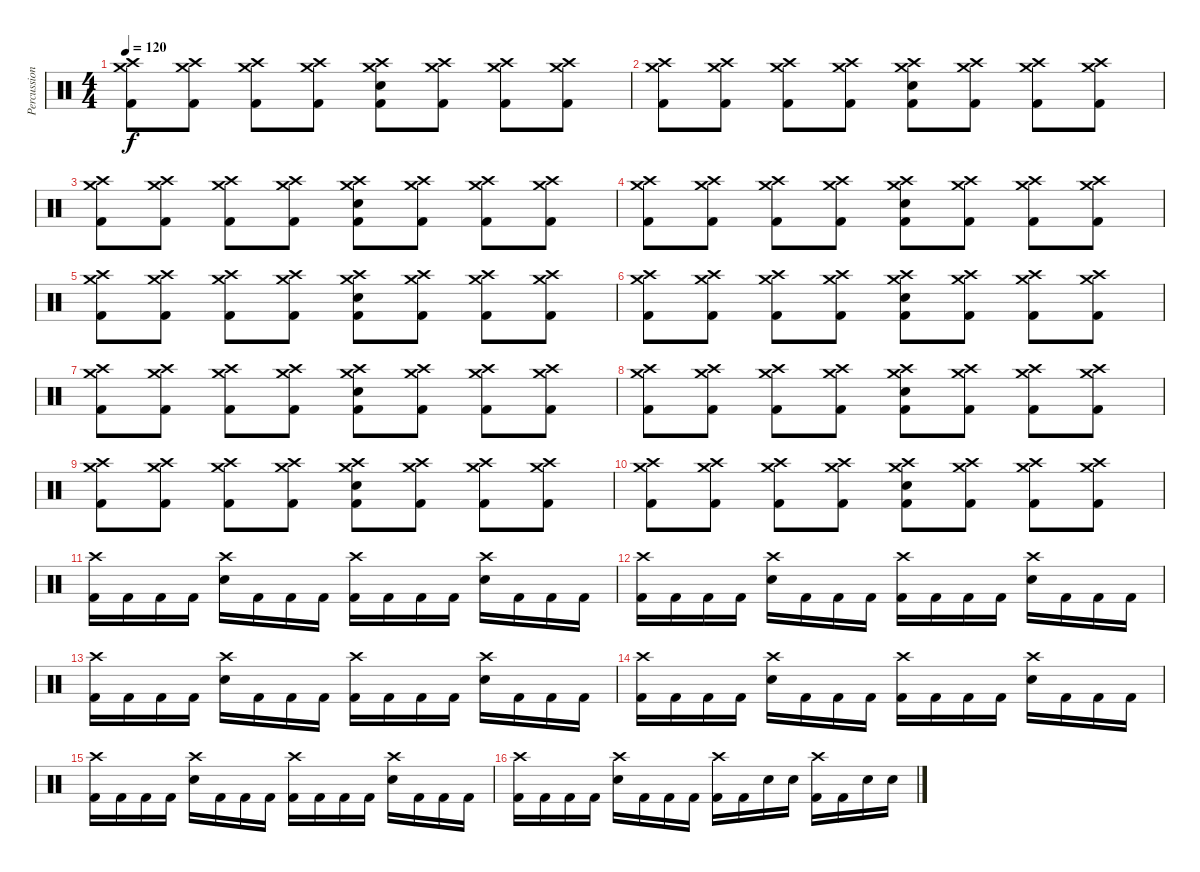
\track ("Percussion" "Percussion") {instrument percussion}
\staff {score}
\articulation defaults
\ts (4 4)
\tempo 120
\clef neutral
\ks c
("Crash high (hit)" "Crash medium (hit)" "Kick (hit) 2").8{dy f} ("Crash high (hit)" "Crash medium (hit)" "Kick (hit) 2").8 ("Crash high (hit)" "Crash medium (hit)" "Kick (hit) 2").8 ("Crash high (hit)" "Crash medium (hit)" "Kick (hit) 2").8 ("Crash high (hit)" "Crash medium (hit)" "Electric Snare (hit)" "Kick (hit) 2").8 ("Crash high (hit)" "Crash medium (hit)" "Kick (hit) 2").8 ("Crash high (hit)" "Crash medium (hit)" "Kick (hit) 2").8 ("Crash high (hit)" "Crash medium (hit)" "Kick (hit) 2").8 |
("Crash high (hit)" "Crash medium (hit)" "Kick (hit) 2").8 ("Crash high (hit)" "Crash medium (hit)" "Kick (hit) 2").8 ("Crash high (hit)" "Crash medium (hit)" "Kick (hit) 2").8 ("Crash high (hit)" "Crash medium (hit)" "Kick (hit) 2").8 ("Crash high (hit)" "Crash medium (hit)" "Electric Snare (hit)" "Kick (hit) 2").8 ("Crash high (hit)" "Crash medium (hit)" "Kick (hit) 2").8 ("Crash high (hit)" "Crash medium (hit)" "Kick (hit) 2").8 ("Crash high (hit)" "Crash medium (hit)" "Kick (hit) 2").8 |
("Crash high (hit)" "Crash medium (hit)" "Kick (hit) 2").8 ("Crash high (hit)" "Crash medium (hit)" "Kick (hit) 2").8 ("Crash high (hit)" "Crash medium (hit)" "Kick (hit) 2").8 ("Crash high (hit)" "Crash medium (hit)" "Kick (hit) 2").8 ("Crash high (hit)" "Crash medium (hit)" "Electric Snare (hit)" "Kick (hit) 2").8 ("Crash high (hit)" "Crash medium (hit)" "Kick (hit) 2").8 ("Crash high (hit)" "Crash medium (hit)" "Kick (hit) 2").8 ("Crash high (hit)" "Crash medium (hit)" "Kick (hit) 2").8 |
("Crash high (hit)" "Crash medium (hit)" "Kick (hit) 2").8 ("Crash high (hit)" "Crash medium (hit)" "Kick (hit) 2").8 ("Crash high (hit)" "Crash medium (hit)" "Kick (hit) 2").8 ("Crash high (hit)" "Crash medium (hit)" "Kick (hit) 2").8 ("Crash high (hit)" "Crash medium (hit)" "Electric Snare (hit)" "Kick (hit) 2").8 ("Crash high (hit)" "Crash medium (hit)" "Kick (hit) 2").8 ("Crash high (hit)" "Crash medium (hit)" "Kick (hit) 2").8 ("Crash high (hit)" "Crash medium (hit)" "Kick (hit) 2").8 |
("Crash high (hit)" "Crash medium (hit)" "Kick (hit) 2").8 ("Crash high (hit)" "Crash medium (hit)" "Kick (hit) 2").8 ("Crash high (hit)" "Crash medium (hit)" "Kick (hit) 2").8 ("Crash high (hit)" "Crash medium (hit)" "Kick (hit) 2").8 ("Crash high (hit)" "Crash medium (hit)" "Electric Snare (hit)" "Kick (hit) 2").8 ("Crash high (hit)" "Crash medium (hit)" "Kick (hit) 2").8 ("Crash high (hit)" "Crash medium (hit)" "Kick (hit) 2").8 ("Crash high (hit)" "Crash medium (hit)" "Kick (hit) 2").8 |
("Crash high (hit)" "Crash medium (hit)" "Kick (hit) 2").8 ("Crash high (hit)" "Crash medium (hit)" "Kick (hit) 2").8 ("Crash high (hit)" "Crash medium (hit)" "Kick (hit) 2").8 ("Crash high (hit)" "Crash medium (hit)" "Kick (hit) 2").8 ("Crash high (hit)" "Crash medium (hit)" "Electric Snare (hit)" "Kick (hit) 2").8 ("Crash high (hit)" "Crash medium (hit)" "Kick (hit) 2").8 ("Crash high (hit)" "Crash medium (hit)" "Kick (hit) 2").8 ("Crash high (hit)" "Crash medium (hit)" "Kick (hit) 2").8 |
("Crash high (hit)" "Crash medium (hit)" "Kick (hit) 2").8 ("Crash high (hit)" "Crash medium (hit)" "Kick (hit) 2").8 ("Crash high (hit)" "Crash medium (hit)" "Kick (hit) 2").8 ("Crash high (hit)" "Crash medium (hit)" "Kick (hit) 2").8 ("Crash high (hit)" "Crash medium (hit)" "Electric Snare (hit)" "Kick (hit) 2").8 ("Crash high (hit)" "Crash medium (hit)" "Kick (hit) 2").8 ("Crash high (hit)" "Crash medium (hit)" "Kick (hit) 2").8 ("Crash high (hit)" "Crash medium (hit)" "Kick (hit) 2").8 |
("Crash high (hit)" "Crash medium (hit)" "Kick (hit) 2").8 ("Crash high (hit)" "Crash medium (hit)" "Kick (hit) 2").8 ("Crash high (hit)" "Crash medium (hit)" "Kick (hit) 2").8 ("Crash high (hit)" "Crash medium (hit)" "Kick (hit) 2").8 ("Crash high (hit)" "Crash medium (hit)" "Electric Snare (hit)" "Kick (hit) 2").8 ("Crash high (hit)" "Crash medium (hit)" "Kick (hit) 2").8 ("Crash high (hit)" "Crash medium (hit)" "Kick (hit) 2").8 ("Crash high (hit)" "Crash medium (hit)" "Kick (hit) 2").8 |
("Crash high (hit)" "Crash medium (hit)" "Kick (hit) 2").8 ("Crash high (hit)" "Crash medium (hit)" "Kick (hit) 2").8 ("Crash high (hit)" "Crash medium (hit)" "Kick (hit) 2").8 ("Crash high (hit)" "Crash medium (hit)" "Kick (hit) 2").8 ("Crash high (hit)" "Crash medium (hit)" "Electric Snare (hit)" "Kick (hit) 2").8 ("Crash high (hit)" "Crash medium (hit)" "Kick (hit) 2").8 ("Crash high (hit)" "Crash medium (hit)" "Kick (hit) 2").8 ("Crash high (hit)" "Crash medium (hit)" "Kick (hit) 2").8 |
("Crash high (hit)" "Crash medium (hit)" "Kick (hit) 2").8 ("Crash high (hit)" "Crash medium (hit)" "Kick (hit) 2").8 ("Crash high (hit)" "Crash medium (hit)" "Kick (hit) 2").8 ("Crash high (hit)" "Crash medium (hit)" "Kick (hit) 2").8 ("Crash high (hit)" "Crash medium (hit)" "Electric Snare (hit)" "Kick (hit) 2").8 ("Crash high (hit)" "Crash medium (hit)" "Kick (hit) 2").8 ("Crash high (hit)" "Crash medium (hit)" "Kick (hit) 2").8 ("Crash high (hit)" "Crash medium (hit)" "Kick (hit) 2").8 |
("Crash high (hit)" "Kick (hit) 2").16 "Kick (hit) 2".16 "Kick (hit) 2".16 "Kick (hit) 2".16 ("Crash high (hit)" "Electric Snare (hit)").16 "Kick (hit) 2".16 "Kick (hit) 2".16 "Kick (hit) 2".16 ("Crash high (hit)" "Kick (hit) 2").16 "Kick (hit) 2".16 "Kick (hit) 2".16 "Kick (hit) 2".16 ("Crash high (hit)" "Electric Snare (hit)").16 "Kick (hit) 2".16 "Kick (hit) 2".16 "Kick (hit) 2".16 |
("Crash high (hit)" "Kick (hit) 2").16 "Kick (hit) 2".16 "Kick (hit) 2".16 "Kick (hit) 2".16 ("Crash high (hit)" "Electric Snare (hit)").16 "Kick (hit) 2".16 "Kick (hit) 2".16 "Kick (hit) 2".16 ("Crash high (hit)" "Kick (hit) 2").16 "Kick (hit) 2".16 "Kick (hit) 2".16 "Kick (hit) 2".16 ("Crash high (hit)" "Electric Snare (hit)").16 "Kick (hit) 2".16 "Kick (hit) 2".16 "Kick (hit) 2".16 |
("Crash high (hit)" "Kick (hit) 2").16 "Kick (hit) 2".16 "Kick (hit) 2".16 "Kick (hit) 2".16 ("Crash high (hit)" "Electric Snare (hit)").16 "Kick (hit) 2".16 "Kick (hit) 2".16 "Kick (hit) 2".16 ("Crash high (hit)" "Kick (hit) 2").16 "Kick (hit) 2".16 "Kick (hit) 2".16 "Kick (hit) 2".16 ("Crash high (hit)" "Electric Snare (hit)").16 "Kick (hit) 2".16 "Kick (hit) 2".16 "Kick (hit) 2".16 |
("Crash high (hit)" "Kick (hit) 2").16 "Kick (hit) 2".16 "Kick (hit) 2".16 "Kick (hit) 2".16 ("Crash high (hit)" "Electric Snare (hit)").16 "Kick (hit) 2".16 "Kick (hit) 2".16 "Kick (hit) 2".16 ("Crash high (hit)" "Kick (hit) 2").16 "Kick (hit) 2".16 "Kick (hit) 2".16 "Kick (hit) 2".16 ("Crash high (hit)" "Electric Snare (hit)").16 "Kick (hit) 2".16 "Kick (hit) 2".16 "Kick (hit) 2".16 |
("Crash high (hit)" "Kick (hit) 2").16 "Kick (hit) 2".16 "Kick (hit) 2".16 "Kick (hit) 2".16 ("Crash high (hit)" "Electric Snare (hit)").16 "Kick (hit) 2".16 "Kick (hit) 2".16 "Kick (hit) 2".16 ("Crash high (hit)" "Kick (hit) 2").16 "Kick (hit) 2".16 "Kick (hit) 2".16 "Kick (hit) 2".16 ("Crash high (hit)" "Electric Snare (hit)").16 "Kick (hit) 2".16 "Kick (hit) 2".16 "Kick (hit) 2".16 |
("Crash high (hit)" "Kick (hit) 2").16 "Kick (hit) 2".16 "Kick (hit) 2".16 "Kick (hit) 2".16 ("Crash high (hit)" "Electric Snare (hit)").16 "Kick (hit) 2".16 "Kick (hit) 2".16 "Kick (hit) 2".16 ("Crash high (hit)" "Kick (hit) 2").16 "Kick (hit) 2".16 "Electric Snare (hit)".16 "Electric Snare (hit)".16 ("Crash high (hit)" "Kick (hit) 2").16 "Kick (hit) 2".16 "Electric Snare (hit)".16 "Electric Snare (hit)".16
